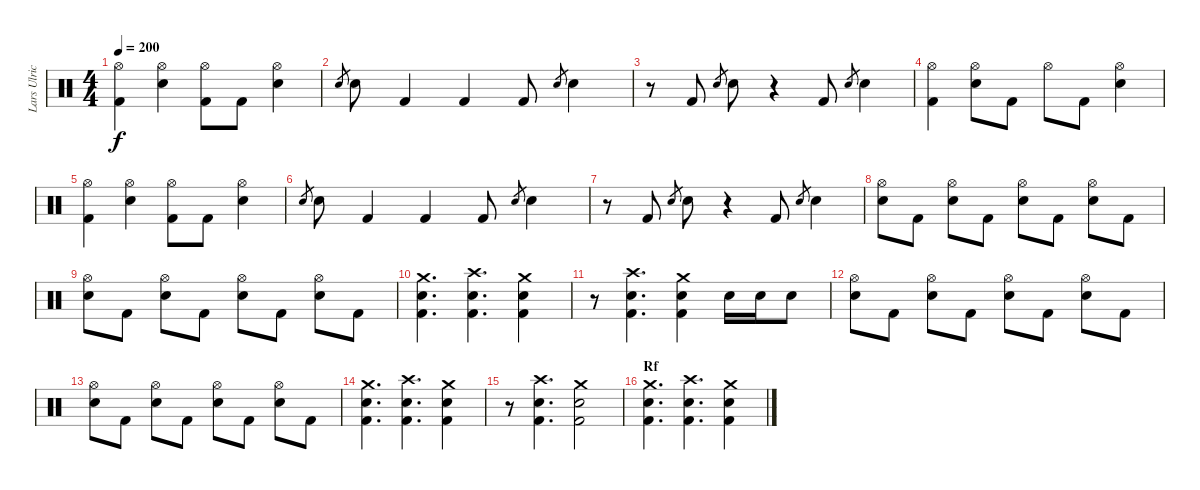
\track ("Lars Ulrich" "Lars Ulric") {instrument percussion}
\staff {score}
\articulation defaults
\ts (4 4)
\tempo 200
\clef neutral
\ks c
("Hi-Hat (open)" "Kick (hit) 2").4{dy f} ("Hi-Hat (open)" "Electric Snare (hit)").4 ("Hi-Hat (open)" "Kick (hit) 2").8 "Kick (hit) 2".8 ("Hi-Hat (open)" "Electric Snare (hit)").4 |
"Electric Snare (hit)".8{gr} "Electric Snare (hit)".8 "Kick (hit) 2".4 "Kick (hit) 2".4 "Kick (hit) 2".8 "Electric Snare (hit)".8{gr} "Electric Snare (hit)".4 |
r.8 "Kick (hit) 2".8 "Electric Snare (hit)".8{gr} "Electric Snare (hit)".8 r.4 "Kick (hit) 2".8 "Electric Snare (hit)".8{gr} "Electric Snare (hit)".4 |
("Hi-Hat (open)" "Kick (hit) 2").4 ("Hi-Hat (open)" "Electric Snare (hit)").8 "Kick (hit) 2".8 "Hi-Hat (open)".8 "Kick (hit) 2".8 ("Hi-Hat (open)" "Electric Snare (hit)").4 |
("Hi-Hat (open)" "Kick (hit) 2").4 ("Hi-Hat (open)" "Electric Snare (hit)").4 ("Hi-Hat (open)" "Kick (hit) 2").8 "Kick (hit) 2".8 ("Hi-Hat (open)" "Electric Snare (hit)").4 |
"Electric Snare (hit)".8{gr} "Electric Snare (hit)".8 "Kick (hit) 2".4 "Kick (hit) 2".4 "Kick (hit) 2".8 "Electric Snare (hit)".8{gr} "Electric Snare (hit)".4 |
r.8 "Kick (hit) 2".8 "Electric Snare (hit)".8{gr} "Electric Snare (hit)".8 r.4 "Kick (hit) 2".8 "Electric Snare (hit)".8{gr} "Electric Snare (hit)".4 |
("Hi-Hat (open)" "Electric Snare (hit)").8 "Kick (hit) 2".8 ("Hi-Hat (open)" "Electric Snare (hit)").8 "Kick (hit) 2".8 ("Hi-Hat (open)" "Electric Snare (hit)").8 "Kick (hit) 2".8 ("Hi-Hat (open)" "Electric Snare (hit)").8 "Kick (hit) 2".8 |
("Hi-Hat (open)" "Electric Snare (hit)").8 "Kick (hit) 2".8 ("Hi-Hat (open)" "Electric Snare (hit)").8 "Kick (hit) 2".8 ("Hi-Hat (open)" "Electric Snare (hit)").8 "Kick (hit) 2".8 ("Hi-Hat (open)" "Electric Snare (hit)").8 "Kick (hit) 2".8 |
("Crash medium (hit)" "Electric Snare (hit)" "Kick (hit) 2").4{d} ("Crash high (hit)" "Electric Snare (hit)" "Kick (hit) 2").4{d} ("Crash medium (hit)" "Electric Snare (hit)" "Kick (hit) 2").4 |
r.8 ("Crash high (hit)" "Electric Snare (hit)" "Kick (hit) 2").4{d} ("Crash medium (hit)" "Electric Snare (hit)" "Kick (hit) 2").4 "Electric Snare (hit)".16 "Electric Snare (hit)".16 "Electric Snare (hit)".8 |
("Hi-Hat (open)" "Electric Snare (hit)").8 "Kick (hit) 2".8 ("Hi-Hat (open)" "Electric Snare (hit)").8 "Kick (hit) 2".8 ("Hi-Hat (open)" "Electric Snare (hit)").8 "Kick (hit) 2".8 ("Hi-Hat (open)" "Electric Snare (hit)").8 "Kick (hit) 2".8 |
("Hi-Hat (open)" "Electric Snare (hit)").8 "Kick (hit) 2".8 ("Hi-Hat (open)" "Electric Snare (hit)").8 "Kick (hit) 2".8 ("Hi-Hat (open)" "Electric Snare (hit)").8 "Kick (hit) 2".8 ("Hi-Hat (open)" "Electric Snare (hit)").8 "Kick (hit) 2".8 |
("Crash medium (hit)" "Electric Snare (hit)" "Kick (hit) 2").4{d} ("Crash high (hit)" "Electric Snare (hit)" "Kick (hit) 2").4{d} ("Crash medium (hit)" "Electric Snare (hit)" "Kick (hit) 2").4 |
r.8 ("Crash high (hit)" "Electric Snare (hit)" "Kick (hit) 2").4{d} ("Crash medium (hit)" "Electric Snare (hit)" "Kick (hit) 2").2 |
\section ("" "Rf")
("Crash medium (hit)" "Electric Snare (hit)" "Kick (hit) 2").4{d} ("Crash high (hit)" "Electric Snare (hit)" "Kick (hit) 2").4{d} ("Crash medium (hit)" "Electric Snare (hit)" "Kick (hit) 2").4
